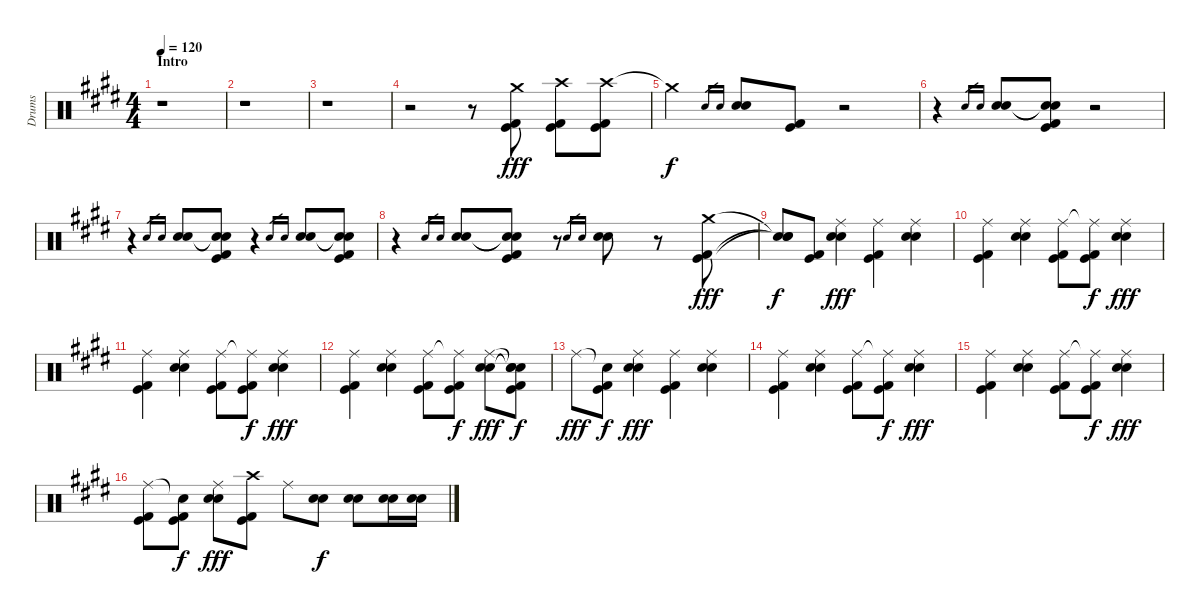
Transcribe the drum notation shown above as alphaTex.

\track ("Drums" "Drums") {instrument percussion}
\staff {score}
\articulation defaults
\ts (4 4)
\section ("" "Intro")
\tempo 120
\clef neutral
\ks e
r.1{dy fff} |
r.1 |
r.1 |
r.2 r.8 ("Crash medium (hit)" "Kick (hit)" "Kick (hit) 2").8 ("Crash high (hit)" "Kick (hit)" "Kick (hit) 2").8 ("Crash high (hit)" "Kick (hit)" "Kick (hit) 2").8 |
"Crash medium (hit)"{t}.4{dy f} "Electric Snare (hit)".16{gr} "Snare (hit) 2".16{gr} ("Electric Snare (hit)" "Snare (hit) 2").8 ("Kick (hit)" "Kick (hit) 2").8 r.2 |
r.4 "Electric Snare (hit)".16{gr} "Snare (hit) 2".16{gr} ("Electric Snare (hit)" "Snare (hit) 2").8 ("Snare (hit)"{t} "Snare (hit)"{t} "Kick (hit)" "Kick (hit) 2").8 r.2 |
r.4 "Electric Snare (hit)".16{gr} "Snare (hit) 2".16{gr} ("Electric Snare (hit)" "Snare (hit) 2").8 ("Snare (hit)"{t} "Snare (hit)"{t} "Kick (hit)" "Kick (hit) 2").8 r.4 "Electric Snare (hit)".16{gr} "Snare (hit) 2".16{gr} ("Electric Snare (hit)" "Snare (hit) 2").8 ("Snare (hit)"{t} "Snare (hit)"{t} "Kick (hit)" "Kick (hit) 2").8 |
r.4 "Electric Snare (hit)".16{gr} "Snare (hit) 2".16{gr} ("Electric Snare (hit)" "Snare (hit) 2").8 ("Snare (hit)"{t} "Snare (hit)"{t} "Kick (hit)" "Kick (hit) 2").8 r.8 "Electric Snare (hit)".16{gr} "Snare (hit) 2".16{gr} ("Electric Snare (hit)" "Snare (hit) 2").8 r.8 ("Crash medium (hit)" "Kick (hit)" "Kick (hit) 2").8{dy fff} |
("Snare (hit)"{t} "Snare (hit)"{t} "Snare (hit)"{t}).8{dy f} ("Kick (hit)" "Kick (hit) 2").8 ("Ride (middle)" "Electric Snare (hit)" "Snare (hit) 2").4{dy fff} ("Ride (middle)" "Kick (hit)" "Kick (hit) 2").4 ("Ride (middle)" "Electric Snare (hit)" "Snare (hit) 2").4 |
("Ride (middle)" "Kick (hit)" "Kick (hit) 2").4 ("Ride (middle)" "Electric Snare (hit)" "Snare (hit) 2").4 ("Ride (middle)" "Kick (hit)" "Kick (hit) 2").8 ("Ride (middle)"{t} "Kick (hit)" "Kick (hit) 2").8{dy f} ("Ride (middle)" "Electric Snare (hit)" "Snare (hit) 2").4{dy fff} |
("Ride (middle)" "Kick (hit)" "Kick (hit) 2").4 ("Ride (middle)" "Electric Snare (hit)" "Snare (hit) 2").4 ("Ride (middle)" "Kick (hit)" "Kick (hit) 2").8 ("Ride (middle)"{t} "Kick (hit)" "Kick (hit) 2").8{dy f} ("Ride (middle)" "Electric Snare (hit)" "Snare (hit) 2").4{dy fff} |
("Ride (middle)" "Kick (hit)" "Kick (hit) 2").4 ("Ride (middle)" "Electric Snare (hit)" "Snare (hit) 2").4 ("Ride (middle)" "Kick (hit)" "Kick (hit) 2").8 ("Ride (middle)"{t} "Kick (hit)" "Kick (hit) 2").8{dy f} ("Ride (middle)" "Electric Snare (hit)" "Snare (hit) 2").8{dy fff} ("Snare (hit)"{t} "Snare (hit)"{t} "Snare (hit)"{t} "Kick (hit)" "Kick (hit) 2").8{dy f} |
"Ride (middle)".8{dy fff} ("Snare (hit)"{t} "Kick (hit)" "Kick (hit) 2").8{dy f} ("Ride (middle)" "Electric Snare (hit)" "Snare (hit) 2").4{dy fff} ("Ride (middle)" "Kick (hit)" "Kick (hit) 2").4 ("Ride (middle)" "Electric Snare (hit)" "Snare (hit) 2").4 |
("Ride (middle)" "Kick (hit)" "Kick (hit) 2").4 ("Ride (middle)" "Electric Snare (hit)" "Snare (hit) 2").4 ("Ride (middle)" "Kick (hit)" "Kick (hit) 2").8 ("Ride (middle)"{t} "Kick (hit)" "Kick (hit) 2").8{dy f} ("Ride (middle)" "Electric Snare (hit)" "Snare (hit) 2").4{dy fff} |
("Ride (middle)" "Kick (hit)" "Kick (hit) 2").4 ("Ride (middle)" "Electric Snare (hit)" "Snare (hit) 2").4 ("Ride (middle)" "Kick (hit)" "Kick (hit) 2").8 ("Ride (middle)"{t} "Kick (hit)" "Kick (hit) 2").8{dy f} ("Ride (middle)" "Electric Snare (hit)" "Snare (hit) 2").4{dy fff} |
("Ride (middle)" "Kick (hit)" "Kick (hit) 2").8 ("Snare (hit)"{t} "Kick (hit)" "Kick (hit) 2").8{dy f} ("Ride (middle)" "Electric Snare (hit)" "Snare (hit) 2").8{dy fff} ("Crash high (hit)" "Kick (hit)" "Kick (hit) 2").8 "Ride (middle)".8 ("Electric Snare (hit)" "Snare (hit) 2").8{dy f} ("Electric Snare (hit)" "Snare (hit) 2").8 ("Electric Snare (hit)" "Snare (hit) 2").16 ("Electric Snare (hit)" "Snare (hit) 2").16
